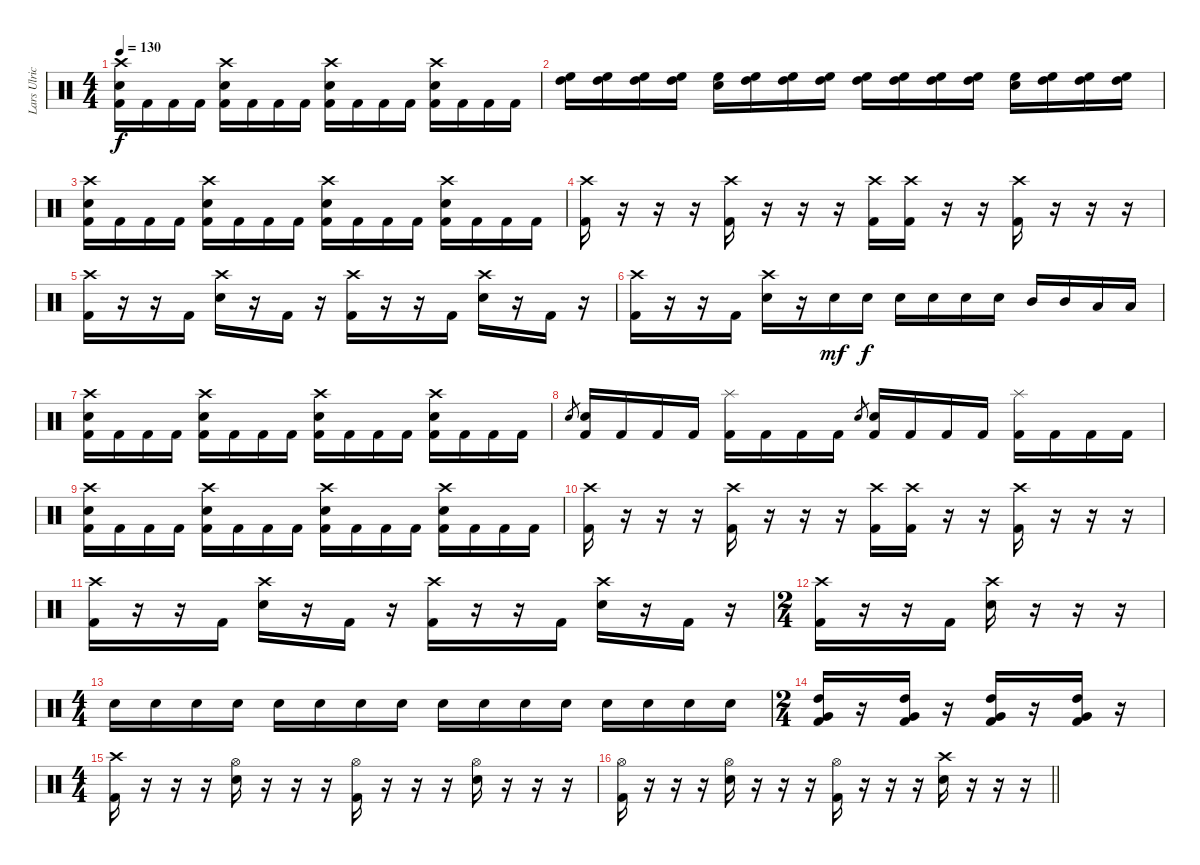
\track ("Lars Ulrich" "Lars Ulric") {instrument percussion}
\staff {score}
\articulation defaults
\ts (4 4)
\tempo 130
\clef neutral
\ks c
("Crash high (hit)" "Electric Snare (hit)" "Kick (hit) 2").16{dy f} "Kick (hit) 2".16 "Kick (hit) 2".16 "Kick (hit) 2".16 ("Crash high (hit)" "Electric Snare (hit)" "Kick (hit) 2").16 "Kick (hit) 2".16 "Kick (hit) 2".16 "Kick (hit) 2".16 ("Crash high (hit)" "Electric Snare (hit)" "Kick (hit) 2").16 "Kick (hit) 2".16 "Kick (hit) 2".16 "Kick (hit) 2".16 ("Crash high (hit)" "Electric Snare (hit)" "Kick (hit) 2").16 "Kick (hit) 2".16 "Kick (hit) 2".16 "Kick (hit) 2".16 |
("High Floor Tom (hit)" "High Tom (hit)").16 ("High Floor Tom (hit)" "High Tom (hit)").16 ("High Floor Tom (hit)" "High Tom (hit)").16 ("High Floor Tom (hit)" "High Tom (hit)").16 ("Electric Snare (hit)" "High Floor Tom (hit)").16 ("High Floor Tom (hit)" "High Tom (hit)").16 ("High Floor Tom (hit)" "High Tom (hit)").16 ("High Floor Tom (hit)" "High Tom (hit)").16 ("High Floor Tom (hit)" "High Tom (hit)").16 ("High Floor Tom (hit)" "High Tom (hit)").16 ("High Floor Tom (hit)" "High Tom (hit)").16 ("High Floor Tom (hit)" "High Tom (hit)").16 ("Electric Snare (hit)" "High Floor Tom (hit)").16 ("High Floor Tom (hit)" "High Tom (hit)").16 ("High Floor Tom (hit)" "High Tom (hit)").16 ("High Floor Tom (hit)" "High Tom (hit)").16 |
("Crash high (hit)" "Electric Snare (hit)" "Kick (hit) 2").16 "Kick (hit) 2".16 "Kick (hit) 2".16 "Kick (hit) 2".16 ("Crash high (hit)" "Electric Snare (hit)" "Kick (hit) 2").16 "Kick (hit) 2".16 "Kick (hit) 2".16 "Kick (hit) 2".16 ("Crash high (hit)" "Electric Snare (hit)" "Kick (hit) 2").16 "Kick (hit) 2".16 "Kick (hit) 2".16 "Kick (hit) 2".16 ("Crash high (hit)" "Electric Snare (hit)" "Kick (hit) 2").16 "Kick (hit) 2".16 "Kick (hit) 2".16 "Kick (hit) 2".16 |
("Crash high (hit)" "Kick (hit) 2").16 r.16 r.16{volume 0} r.16 ("Crash high (hit)" "Kick (hit) 2").16{volume 13} r.16 r.16{volume 0} r.16 ("Crash high (hit)" "Kick (hit) 2").16{volume 13} ("Crash high (hit)" "Kick (hit) 2").16 r.16 r.16{volume 0} ("Crash high (hit)" "Kick (hit) 2").16{volume 13} r.16 r.16{volume 0} r.16 |
("Crash high (hit)" "Kick (hit) 2").16{volume 13} r.16 r.16 "Kick (hit) 2".16 ("Crash high (hit)" "Electric Snare (hit)").16 r.16 "Kick (hit) 2".16 r.16 ("Crash high (hit)" "Kick (hit) 2").16 r.16 r.16 "Kick (hit) 2".16 ("Crash high (hit)" "Electric Snare (hit)").16 r.16 "Kick (hit) 2".16 r.16 |
("Crash high (hit)" "Kick (hit) 2").16 r.16 r.16 "Kick (hit) 2".16 ("Crash high (hit)" "Electric Snare (hit)").16 r.16 "Electric Snare (hit)".16{dy mf} "Electric Snare (hit)".16{dy f} "Electric Snare (hit)".16 "Electric Snare (hit)".16 "Electric Snare (hit)".16 "Electric Snare (hit)".16 "Mid Tom (hit)".16 "Mid Tom (hit)".16 "Low Tom (hit)".16 "Low Tom (hit)".16 |
("Crash high (hit)" "Electric Snare (hit)" "Kick (hit) 2").16 "Kick (hit) 2".16 "Kick (hit) 2".16 "Kick (hit) 2".16 ("Crash high (hit)" "Electric Snare (hit)" "Kick (hit) 2").16 "Kick (hit) 2".16 "Kick (hit) 2".16 "Kick (hit) 2".16 ("Crash high (hit)" "Electric Snare (hit)" "Kick (hit) 2").16 "Kick (hit) 2".16 "Kick (hit) 2".16 "Kick (hit) 2".16 ("Crash high (hit)" "Electric Snare (hit)" "Kick (hit) 2").16 "Kick (hit) 2".16 "Kick (hit) 2".16 "Kick (hit) 2".16 |
"Electric Snare (hit)".8{gr} ("Electric Snare (hit)" "Kick (hit) 2").16 "Kick (hit) 2".16 "Kick (hit) 2".16 "Kick (hit) 2".16 ("Splash (hit)" "Kick (hit) 2").16 "Kick (hit) 2".16 "Kick (hit) 2".16 "Kick (hit) 2".16 "Electric Snare (hit)".8{gr} ("Electric Snare (hit)" "Kick (hit) 2").16 "Kick (hit) 2".16 "Kick (hit) 2".16 "Kick (hit) 2".16 ("Splash (hit)" "Kick (hit) 2").16 "Kick (hit) 2".16 "Kick (hit) 2".16 "Kick (hit) 2".16 |
("Crash high (hit)" "Electric Snare (hit)" "Kick (hit) 2").16 "Kick (hit) 2".16 "Kick (hit) 2".16 "Kick (hit) 2".16 ("Crash high (hit)" "Electric Snare (hit)" "Kick (hit) 2").16 "Kick (hit) 2".16 "Kick (hit) 2".16 "Kick (hit) 2".16 ("Crash high (hit)" "Electric Snare (hit)" "Kick (hit) 2").16 "Kick (hit) 2".16 "Kick (hit) 2".16 "Kick (hit) 2".16 ("Crash high (hit)" "Electric Snare (hit)" "Kick (hit) 2").16 "Kick (hit) 2".16 "Kick (hit) 2".16 "Kick (hit) 2".16 |
("Crash high (hit)" "Kick (hit) 2").16 r.16 r.16{volume 0} r.16 ("Crash high (hit)" "Kick (hit) 2").16{volume 13} r.16 r.16{volume 0} r.16 ("Crash high (hit)" "Kick (hit) 2").16{volume 13} ("Crash high (hit)" "Kick (hit) 2").16 r.16 r.16{volume 0} ("Crash high (hit)" "Kick (hit) 2").16{volume 13} r.16 r.16{volume 0} r.16 |
("Crash high (hit)" "Kick (hit) 2").16{volume 13} r.16 r.16 "Kick (hit) 2".16 ("Crash high (hit)" "Electric Snare (hit)").16 r.16 "Kick (hit) 2".16 r.16 ("Crash high (hit)" "Kick (hit) 2").16 r.16 r.16 "Kick (hit) 2".16 ("Crash high (hit)" "Electric Snare (hit)").16 r.16 "Kick (hit) 2".16 r.16 |
\ts (2 4)
("Crash high (hit)" "Kick (hit) 2").16 r.16 r.16 "Kick (hit) 2".16 ("Crash high (hit)" "Electric Snare (hit)").16 r.16 r.16 r.16 |
\ts (4 4)
"Electric Snare (hit)".16 "Electric Snare (hit)".16 "Electric Snare (hit)".16 "Electric Snare (hit)".16 "Electric Snare (hit)".16 "Electric Snare (hit)".16 "Electric Snare (hit)".16 "Electric Snare (hit)".16 "Electric Snare (hit)".16 "Electric Snare (hit)".16 "Electric Snare (hit)".16 "Electric Snare (hit)".16 "Electric Snare (hit)".16 "Electric Snare (hit)".16 "Electric Snare (hit)".16 "Electric Snare (hit)".16 |
\ts (2 4)
("High Tom (hit)" "Very Low Tom (hit)" "Kick (hit) 2").16 r.16 ("High Tom (hit)" "Very Low Tom (hit)" "Kick (hit) 2").16 r.16 ("High Tom (hit)" "Very Low Tom (hit)" "Kick (hit) 2").16 r.16 ("High Tom (hit)" "Very Low Tom (hit)" "Kick (hit) 2").16 r.16 |
\ts (4 4)
("Crash high (hit)" "Kick (hit) 2").16 r.16 r.16 r.16 ("Electric Snare (hit)" "Hi-Hat (open)").16 r.16 r.16 r.16 ("Hi-Hat (open)" "Kick (hit) 2").16 r.16 r.16 r.16 ("Electric Snare (hit)" "Hi-Hat (open)").16 r.16 r.16 r.16 |
\barLineRight lightlight
("Hi-Hat (open)" "Kick (hit) 2").16 r.16 r.16 r.16 ("Electric Snare (hit)" "Hi-Hat (open)").16 r.16 r.16 r.16 ("Hi-Hat (open)" "Kick (hit) 2").16 r.16 r.16 r.16 ("Crash high (hit)" "Electric Snare (hit)").16 r.16 r.16 r.16
